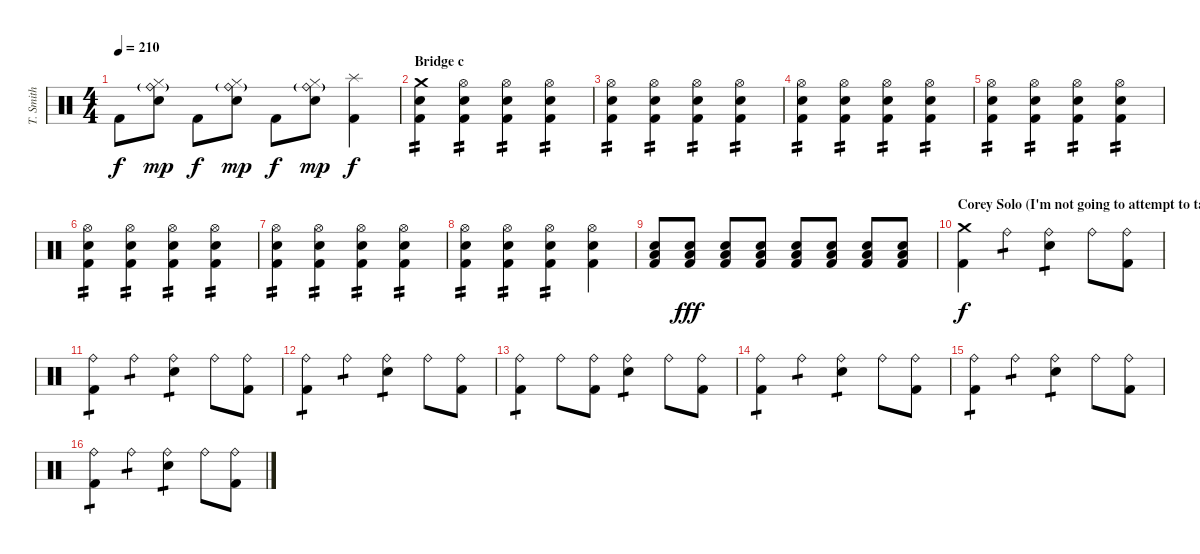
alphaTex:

\track ("T. Smith" "T. Smith") {instrument percussion}
\staff {score}
\articulation defaults
\ts (4 4)
\tempo 210
\clef neutral
\ks c "Kick (hit) 2".8{dy f}
("Hi-Hat (closed)" "Ride (bell)"{g} "Electric Snare (hit)").8{dy mp} "Kick (hit) 2".8{dy f} ("Hi-Hat (closed)" "Ride (bell)"{g} "Electric Snare (hit)").8{dy mp} "Kick (hit) 2".8{dy f} ("Hi-Hat (closed)" "Ride (bell)"{g} "Electric Snare (hit)").8{dy mp} ("Splash (hit)" "Kick (hit) 2").4{dy f} |
\section ("" "Bridge c")
("Crash medium (hit)" "Electric Snare (hit)" "Kick (hit) 2").4{tp 2} ("Hi-Hat (open)" "Electric Snare (hit)" "Kick (hit) 2").4{tp 2} ("Hi-Hat (open)" "Electric Snare (hit)" "Kick (hit) 2").4{tp 2} ("Hi-Hat (open)" "Electric Snare (hit)" "Kick (hit) 2").4{tp 2} |
("Hi-Hat (open)" "Electric Snare (hit)" "Kick (hit) 2").4{tp 2} ("Hi-Hat (open)" "Electric Snare (hit)" "Kick (hit) 2").4{tp 2} ("Hi-Hat (open)" "Electric Snare (hit)" "Kick (hit) 2").4{tp 2} ("Hi-Hat (open)" "Electric Snare (hit)" "Kick (hit) 2").4{tp 2} |
("Hi-Hat (open)" "Electric Snare (hit)" "Kick (hit) 2").4{tp 2} ("Hi-Hat (open)" "Electric Snare (hit)" "Kick (hit) 2").4{tp 2} ("Hi-Hat (open)" "Electric Snare (hit)" "Kick (hit) 2").4{tp 2} ("Hi-Hat (open)" "Electric Snare (hit)" "Kick (hit) 2").4{tp 2} |
("Hi-Hat (open)" "Electric Snare (hit)" "Kick (hit) 2").4{tp 2} ("Hi-Hat (open)" "Electric Snare (hit)" "Kick (hit) 2").4{tp 2} ("Hi-Hat (open)" "Electric Snare (hit)" "Kick (hit) 2").4{tp 2} ("Hi-Hat (open)" "Electric Snare (hit)" "Kick (hit) 2").4{tp 2} |
("Hi-Hat (open)" "Electric Snare (hit)" "Kick (hit) 2").4{tp 2} ("Hi-Hat (open)" "Electric Snare (hit)" "Kick (hit) 2").4{tp 2} ("Hi-Hat (open)" "Electric Snare (hit)" "Kick (hit) 2").4{tp 2} ("Hi-Hat (open)" "Electric Snare (hit)" "Kick (hit) 2").4{tp 2} |
("Hi-Hat (open)" "Electric Snare (hit)" "Kick (hit) 2").4{tp 2} ("Hi-Hat (open)" "Electric Snare (hit)" "Kick (hit) 2").4{tp 2} ("Hi-Hat (open)" "Electric Snare (hit)" "Kick (hit) 2").4{tp 2} ("Hi-Hat (open)" "Electric Snare (hit)" "Kick (hit) 2").4{tp 2} |
("Hi-Hat (open)" "Electric Snare (hit)" "Kick (hit) 2").4{tp 2} ("Hi-Hat (open)" "Electric Snare (hit)" "Kick (hit) 2").4{tp 2} ("Hi-Hat (open)" "Electric Snare (hit)" "Kick (hit) 2").4{tp 2} ("Hi-Hat (open)" "Electric Snare (hit)" "Kick (hit) 2").4 |
("Low Tom (hit)" "Electric Snare (hit)" "Kick (hit) 2").8{volume 7} ("Low Tom (hit)" "Electric Snare (hit)" "Kick (hit) 2").8{dy fff volume 16} ("Low Tom (hit)" "Electric Snare (hit)" "Kick (hit) 2").8 ("Low Tom (hit)" "Electric Snare (hit)" "Kick (hit) 2").8 ("Low Tom (hit)" "Electric Snare (hit)" "Kick (hit) 2").8 ("Low Tom (hit)" "Electric Snare (hit)" "Kick (hit) 2").8 ("Low Tom (hit)" "Electric Snare (hit)" "Kick (hit) 2").8 ("Low Tom (hit)" "Electric Snare (hit)" "Kick (hit) 2").8 |
\section ("" "Corey Solo (I'm not going to attempt to tab this...)")
("Crash medium (hit)" "Kick (hit) 2").4{dy f} "Ride (bell)".4{tp 1} ("Ride (bell)" "Electric Snare (hit)").4{tp 1} "Ride (bell)".8 ("Ride (bell)" "Kick (hit) 2").8 |
("Ride (bell)" "Kick (hit) 2").4{tp 1} "Ride (bell)".4{tp 1} ("Ride (bell)" "Electric Snare (hit)").4{tp 1} "Ride (bell)".8 ("Ride (bell)" "Kick (hit) 2").8 |
("Ride (bell)" "Kick (hit) 2").4{tp 1} "Ride (bell)".4{tp 1} ("Ride (bell)" "Electric Snare (hit)").4{tp 1} "Ride (bell)".8 ("Ride (bell)" "Kick (hit) 2").8 |
("Ride (bell)" "Kick (hit) 2").4{tp 1} "Ride (bell)".8 ("Ride (bell)" "Kick (hit) 2").8 ("Ride (bell)" "Electric Snare (hit)").4{tp 1} "Ride (bell)".8 ("Ride (bell)" "Kick (hit) 2").8 |
("Ride (bell)" "Kick (hit) 2").4{tp 1} "Ride (bell)".4{tp 1} ("Ride (bell)" "Electric Snare (hit)").4{tp 1} "Ride (bell)".8 ("Ride (bell)" "Kick (hit) 2").8 |
("Ride (bell)" "Kick (hit) 2").4{tp 1} "Ride (bell)".4{tp 1} ("Ride (bell)" "Electric Snare (hit)").4{tp 1} "Ride (bell)".8 ("Ride (bell)" "Kick (hit) 2").8 |
("Ride (bell)" "Kick (hit) 2").4{tp 1} "Ride (bell)".4{tp 1} ("Ride (bell)" "Electric Snare (hit)").4{tp 1} "Ride (bell)".8 ("Ride (bell)" "Kick (hit) 2").8
